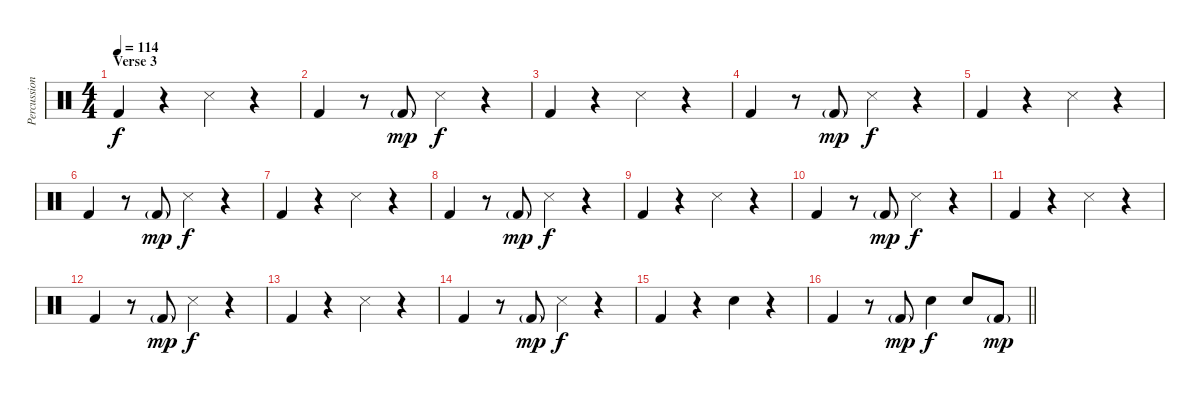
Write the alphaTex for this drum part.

\track ("Percussion" "Percussion") {instrument percussion}
\staff {score}
\articulation defaults
\ts (4 4)
\section ("" "Verse 3")
\tempo 114
\clef neutral
\ks c "Kick (hit) 2".4{dy f}
r.4 "Snare (side stick) 3".4 r.4 |
"Kick (hit) 2".4 r.8 "Kick (hit) 2"{g}.8{dy mp} "Snare (side stick) 3".4{dy f} r.4 |
"Kick (hit) 2".4 r.4 "Snare (side stick) 3".4 r.4 |
"Kick (hit) 2".4 r.8 "Kick (hit) 2"{g}.8{dy mp} "Snare (side stick) 3".4{dy f} r.4 |
"Kick (hit) 2".4 r.4 "Snare (side stick) 3".4 r.4 |
"Kick (hit) 2".4 r.8 "Kick (hit) 2"{g}.8{dy mp} "Snare (side stick) 3".4{dy f} r.4 |
"Kick (hit) 2".4 r.4 "Snare (side stick) 3".4 r.4 |
"Kick (hit) 2".4 r.8 "Kick (hit) 2"{g}.8{dy mp} "Snare (side stick) 3".4{dy f} r.4 |
"Kick (hit) 2".4 r.4 "Snare (side stick) 3".4 r.4 |
"Kick (hit) 2".4 r.8 "Kick (hit) 2"{g}.8{dy mp} "Snare (side stick) 3".4{dy f} r.4 |
"Kick (hit) 2".4 r.4 "Snare (side stick) 3".4 r.4 |
"Kick (hit) 2".4 r.8 "Kick (hit) 2"{g}.8{dy mp} "Snare (side stick) 3".4{dy f} r.4 |
"Kick (hit) 2".4 r.4 "Snare (side stick) 3".4 r.4 |
"Kick (hit) 2".4 r.8 "Kick (hit) 2"{g}.8{dy mp} "Snare (side stick) 3".4{dy f} r.4 |
"Kick (hit) 2".4 r.4 "Snare (hit) 2".4 r.4 |
\barLineRight lightlight "Kick (hit) 2".4
r.8 "Kick (hit) 2"{g}.8{dy mp} "Snare (hit) 2".4{dy f} "Snare (hit) 2".8 "Kick (hit) 2"{g}.8{dy mp}
